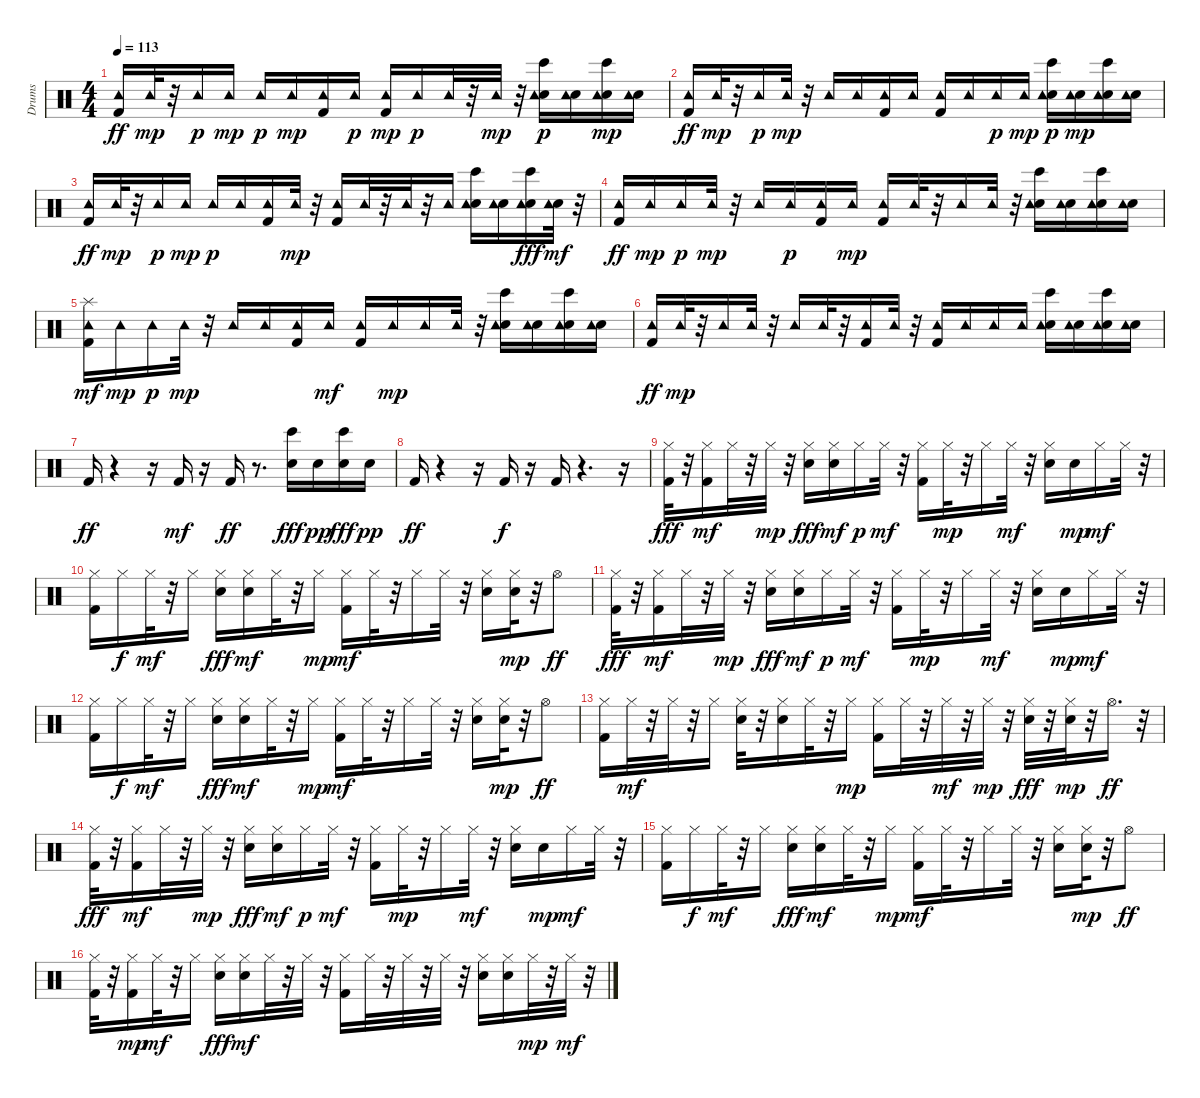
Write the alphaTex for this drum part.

\track ("Drums" "Drums") {instrument percussion}
\staff {score}
\articulation defaults
\ts (4 4)
\tempo 113
\clef neutral
\ks c
("Kick (hit) 2" "Tambourine (hit)").16{dy ff} "Tambourine (hit)".32{dy mp} r.32 "Tambourine (hit)".16{dy p} "Tambourine (hit)".16{dy mp} "Tambourine (hit)".16{dy p} "Tambourine (hit)".16{dy mp} ("Kick (hit) 2" "Tambourine (hit)").16 "Tambourine (hit)".16{dy p} ("Kick (hit) 2" "Tambourine (hit)").16{dy mp} "Tambourine (hit)".16{dy p} "Tambourine (hit)".32 r.32 "Tambourine (hit)".32{dy mp} r.32 ("Electric Snare (hit)" "Bongo High (hit)" "Tambourine (hit)").16{dy p} ("Electric Snare (hit)" "Tambourine (hit)").16 ("Electric Snare (hit)" "Bongo High (hit)" "Tambourine (hit)").16{dy mp} ("Electric Snare (hit)" "Tambourine (hit)").16 |
("Kick (hit) 2" "Tambourine (hit)").16{dy ff} "Tambourine (hit)".32{dy mp} r.32 "Tambourine (hit)".16{dy p} "Tambourine (hit)".32{dy mp} r.32 "Tambourine (hit)".16 "Tambourine (hit)".16 ("Kick (hit) 2" "Tambourine (hit)").16 "Tambourine (hit)".16 ("Kick (hit) 2" "Tambourine (hit)").16 "Tambourine (hit)".16 "Tambourine (hit)".16{dy p} "Tambourine (hit)".16{dy mp} ("Electric Snare (hit)" "Bongo High (hit)" "Tambourine (hit)").16{dy p} ("Electric Snare (hit)" "Tambourine (hit)").16{dy mp} ("Electric Snare (hit)" "Bongo High (hit)" "Tambourine (hit)").16 ("Electric Snare (hit)" "Tambourine (hit)").16 |
("Kick (hit) 2" "Tambourine (hit)").16{dy ff} "Tambourine (hit)".32{dy mp} r.32 "Tambourine (hit)".16{dy p} "Tambourine (hit)".16{dy mp} "Tambourine (hit)".16{dy p} "Tambourine (hit)".16 ("Kick (hit) 2" "Tambourine (hit)").16 "Tambourine (hit)".32{dy mp} r.32 ("Kick (hit) 2" "Tambourine (hit)").16 "Tambourine (hit)".32 r.32 "Tambourine (hit)".32 r.32 "Tambourine (hit)".16 ("Electric Snare (hit)" "Bongo High (hit)" "Tambourine (hit)").16 ("Electric Snare (hit)" "Tambourine (hit)").16 ("Electric Snare (hit)" "Bongo High (hit)" "Tambourine (hit)").16{dy fff} ("Electric Snare (hit)" "Tambourine (hit)").32{dy mf} r.32 |
("Kick (hit) 2" "Tambourine (hit)").16{dy ff} "Tambourine (hit)".16{dy mp} "Tambourine (hit)".16{dy p} "Tambourine (hit)".32{dy mp} r.32 "Tambourine (hit)".16 "Tambourine (hit)".16{dy p} ("Kick (hit) 2" "Tambourine (hit)").16 "Tambourine (hit)".16{dy mp} ("Kick (hit) 2" "Tambourine (hit)").16 "Tambourine (hit)".32 r.32 "Tambourine (hit)".16 "Tambourine (hit)".32 r.32 ("Electric Snare (hit)" "Bongo High (hit)" "Tambourine (hit)").16 ("Electric Snare (hit)" "Tambourine (hit)").16 ("Electric Snare (hit)" "Bongo High (hit)" "Tambourine (hit)").16 ("Electric Snare (hit)" "Tambourine (hit)").16 |
("Kick (hit) 2" "Tambourine (hit)" "Splash (hit)").16{dy mf} "Tambourine (hit)".16{dy mp} "Tambourine (hit)".16{dy p} "Tambourine (hit)".32{dy mp} r.32 "Tambourine (hit)".16 "Tambourine (hit)".16 ("Kick (hit) 2" "Tambourine (hit)").16 "Tambourine (hit)".16{dy mf} ("Kick (hit) 2" "Tambourine (hit)").16 "Tambourine (hit)".16{dy mp} "Tambourine (hit)".16 "Tambourine (hit)".32 r.32 ("Electric Snare (hit)" "Bongo High (hit)" "Tambourine (hit)").16 ("Electric Snare (hit)" "Tambourine (hit)").16 ("Electric Snare (hit)" "Bongo High (hit)" "Tambourine (hit)").16 ("Electric Snare (hit)" "Tambourine (hit)").16 |
("Kick (hit) 2" "Tambourine (hit)").16{dy ff} "Tambourine (hit)".32{dy mp} r.32 "Tambourine (hit)".16 "Tambourine (hit)".32 r.32 "Tambourine (hit)".16 "Tambourine (hit)".32 r.32 ("Kick (hit) 2" "Tambourine (hit)").16 "Tambourine (hit)".32 r.32 ("Kick (hit) 2" "Tambourine (hit)").16 "Tambourine (hit)".16 "Tambourine (hit)".16 "Tambourine (hit)".16 ("Electric Snare (hit)" "Bongo High (hit)" "Tambourine (hit)").16 ("Electric Snare (hit)" "Tambourine (hit)").16 ("Electric Snare (hit)" "Bongo High (hit)" "Tambourine (hit)").16 ("Electric Snare (hit)" "Tambourine (hit)").16 |
"Kick (hit) 2".16{dy ff} r.4 r.16 "Kick (hit) 2".16{dy mf} r.16 "Kick (hit) 2".16{dy ff} r.8{d} ("Electric Snare (hit)" "Bongo High (hit)").16{dy fff} "Electric Snare (hit)".16{dy pp} ("Electric Snare (hit)" "Bongo High (hit)").16{dy fff} "Electric Snare (hit)".16{dy pp} |
"Kick (hit) 2".16{dy ff} r.4 r.16 "Kick (hit) 2".16{dy f} r.16 "Kick (hit) 2".16 r.4{d} r.16 |
("Kick (hit) 2" "Hi-Hat (closed)").32{dy fff} r.32 ("Kick (hit) 2" "Hi-Hat (closed)").16{dy mf} "Hi-Hat (closed)".32 r.32 "Hi-Hat (closed)".32{dy mp} r.32 ("Electric Snare (hit)" "Hi-Hat (closed)").16{dy fff} ("Electric Snare (hit)" "Hi-Hat (closed)").16{dy mf} "Hi-Hat (closed)".16{dy p} "Hi-Hat (closed)".32{dy mf} r.32 ("Kick (hit) 2" "Hi-Hat (closed)").16 "Hi-Hat (closed)".32{dy mp} r.32 "Hi-Hat (closed)".16 "Hi-Hat (closed)".32{dy mf} r.32 ("Electric Snare (hit)" "Hi-Hat (closed)").16 "Electric Snare (hit)".16{dy mp} "Hi-Hat (closed)".16{dy mf} "Hi-Hat (closed)".32 r.32 |
("Kick (hit) 2" "Hi-Hat (closed)").16 "Hi-Hat (closed)".16{dy f} "Hi-Hat (closed)".32{dy mf} r.32 "Hi-Hat (closed)".16 ("Electric Snare (hit)" "Hi-Hat (closed)").16{dy fff} ("Electric Snare (hit)" "Hi-Hat (closed)").16{dy mf} "Hi-Hat (closed)".32 r.32 "Hi-Hat (closed)".16{dy mp} ("Kick (hit) 2" "Hi-Hat (closed)").16{dy mf} "Hi-Hat (closed)".32 r.32 "Hi-Hat (closed)".16 "Hi-Hat (closed)".32 r.32 ("Electric Snare (hit)" "Hi-Hat (closed)").16 ("Electric Snare (hit)" "Hi-Hat (closed)").32{dy mp} r.32 "Hi-Hat (open)".8{dy ff} |
("Kick (hit) 2" "Hi-Hat (closed)").32{dy fff} r.32 ("Kick (hit) 2" "Hi-Hat (closed)").16{dy mf} "Hi-Hat (closed)".32 r.32 "Hi-Hat (closed)".32{dy mp} r.32 ("Electric Snare (hit)" "Hi-Hat (closed)").16{dy fff} ("Electric Snare (hit)" "Hi-Hat (closed)").16{dy mf} "Hi-Hat (closed)".16{dy p} "Hi-Hat (closed)".32{dy mf} r.32 ("Kick (hit) 2" "Hi-Hat (closed)").16 "Hi-Hat (closed)".32{dy mp} r.32 "Hi-Hat (closed)".16 "Hi-Hat (closed)".32{dy mf} r.32 ("Electric Snare (hit)" "Hi-Hat (closed)").16 "Electric Snare (hit)".16{dy mp} "Hi-Hat (closed)".16{dy mf} "Hi-Hat (closed)".32 r.32 |
("Kick (hit) 2" "Hi-Hat (closed)").16 "Hi-Hat (closed)".16{dy f} "Hi-Hat (closed)".32{dy mf} r.32 "Hi-Hat (closed)".16 ("Electric Snare (hit)" "Hi-Hat (closed)").16{dy fff} ("Electric Snare (hit)" "Hi-Hat (closed)").16{dy mf} "Hi-Hat (closed)".32 r.32 "Hi-Hat (closed)".16{dy mp} ("Kick (hit) 2" "Hi-Hat (closed)").16{dy mf} "Hi-Hat (closed)".32 r.32 "Hi-Hat (closed)".16 "Hi-Hat (closed)".32 r.32 ("Electric Snare (hit)" "Hi-Hat (closed)").16 ("Electric Snare (hit)" "Hi-Hat (closed)").32{dy mp} r.32 "Hi-Hat (open)".8{dy ff} |
("Kick (hit) 2" "Hi-Hat (closed)").16 "Hi-Hat (closed)".32{dy mf} r.32 "Hi-Hat (closed)".32 r.32 "Hi-Hat (closed)".16 ("Electric Snare (hit)" "Hi-Hat (closed)").32 r.32 ("Electric Snare (hit)" "Hi-Hat (closed)").16 "Hi-Hat (closed)".32 r.32 "Hi-Hat (closed)".16{dy mp} ("Kick (hit) 2" "Hi-Hat (closed)").16 "Hi-Hat (closed)".32 r.32 "Hi-Hat (closed)".32{dy mf} r.32 "Hi-Hat (closed)".32{dy mp} r.32 ("Electric Snare (hit)" "Hi-Hat (closed)").32{dy fff} r.32 ("Electric Snare (hit)" "Hi-Hat (closed)").32{dy mp} r.32 "Hi-Hat (open)".16{d dy ff} r.32 |
("Kick (hit) 2" "Hi-Hat (closed)").32{dy fff} r.32 ("Kick (hit) 2" "Hi-Hat (closed)").16{dy mf} "Hi-Hat (closed)".32 r.32 "Hi-Hat (closed)".32{dy mp} r.32 ("Electric Snare (hit)" "Hi-Hat (closed)").16{dy fff} ("Electric Snare (hit)" "Hi-Hat (closed)").16{dy mf} "Hi-Hat (closed)".16{dy p} "Hi-Hat (closed)".32{dy mf} r.32 ("Kick (hit) 2" "Hi-Hat (closed)").16 "Hi-Hat (closed)".32{dy mp} r.32 "Hi-Hat (closed)".16 "Hi-Hat (closed)".32{dy mf} r.32 ("Electric Snare (hit)" "Hi-Hat (closed)").16 "Electric Snare (hit)".16{dy mp} "Hi-Hat (closed)".16{dy mf} "Hi-Hat (closed)".32 r.32 |
("Kick (hit) 2" "Hi-Hat (closed)").16 "Hi-Hat (closed)".16{dy f} "Hi-Hat (closed)".32{dy mf} r.32 "Hi-Hat (closed)".16 ("Electric Snare (hit)" "Hi-Hat (closed)").16{dy fff} ("Electric Snare (hit)" "Hi-Hat (closed)").16{dy mf} "Hi-Hat (closed)".32 r.32 "Hi-Hat (closed)".16{dy mp} ("Kick (hit) 2" "Hi-Hat (closed)").16{dy mf} "Hi-Hat (closed)".32 r.32 "Hi-Hat (closed)".16 "Hi-Hat (closed)".32 r.32 ("Electric Snare (hit)" "Hi-Hat (closed)").16 ("Electric Snare (hit)" "Hi-Hat (closed)").32{dy mp} r.32 "Hi-Hat (open)".8{dy ff} |
("Kick (hit) 2" "Hi-Hat (closed)").32 r.32 ("Kick (hit) 2" "Hi-Hat (closed)").16{dy mp} "Hi-Hat (closed)".32{dy mf} r.32 "Hi-Hat (closed)".16 ("Electric Snare (hit)" "Hi-Hat (closed)").16{dy fff} ("Electric Snare (hit)" "Hi-Hat (closed)").16{dy mf} "Hi-Hat (closed)".32 r.32 "Hi-Hat (closed)".32 r.32 ("Kick (hit) 2" "Hi-Hat (closed)").16 "Hi-Hat (closed)".32 r.32 "Hi-Hat (closed)".32 r.32 "Hi-Hat (closed)".32 r.32 ("Electric Snare (hit)" "Hi-Hat (closed)").16 ("Electric Snare (hit)" "Hi-Hat (closed)").16 "Hi-Hat (closed)".32{dy mp} r.32 "Hi-Hat (closed)".32{dy mf} r.32
